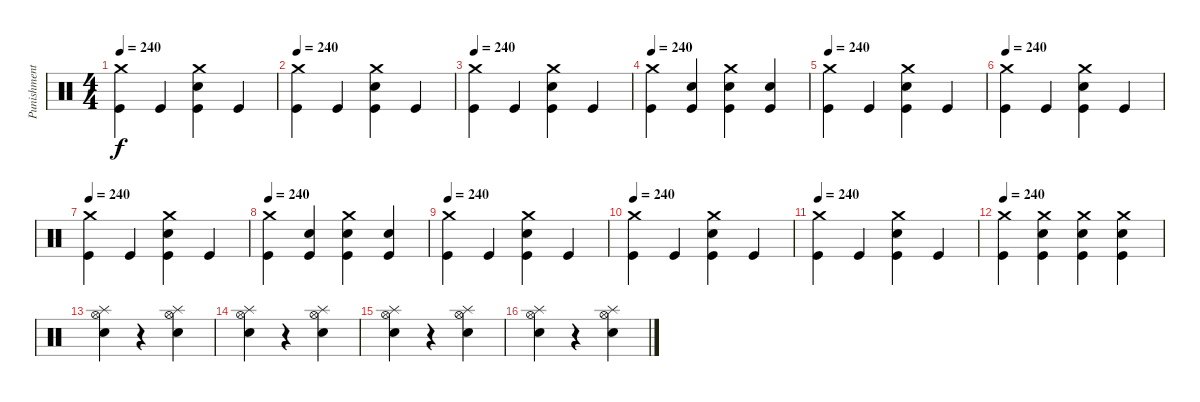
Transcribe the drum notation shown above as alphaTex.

\track ("Punishment" "Punishment") {instrument percussion}
\staff {score}
\articulation defaults
\ts (4 4)
\tempo 240
\clef neutral
\ks c
("Crash medium (hit)" "Kick (hit)").4{dy f} "Kick (hit)".4 ("Crash medium (hit)" "Electric Snare (hit)" "Kick (hit)").4 "Kick (hit)".4 |
\tempo 240
("Crash medium (hit)" "Kick (hit)").4 "Kick (hit)".4 ("Crash medium (hit)" "Electric Snare (hit)" "Kick (hit)").4 "Kick (hit)".4 |
\tempo 240
("Crash medium (hit)" "Kick (hit)").4 "Kick (hit)".4 ("Crash medium (hit)" "Electric Snare (hit)" "Kick (hit)").4 "Kick (hit)".4 |
\tempo 240
("Crash medium (hit)" "Kick (hit)").4 ("Electric Snare (hit)" "Kick (hit)").4 ("Crash medium (hit)" "Electric Snare (hit)" "Kick (hit)").4 ("Electric Snare (hit)" "Kick (hit)").4 |
\tempo 240
("Crash medium (hit)" "Kick (hit)").4 "Kick (hit)".4 ("Crash medium (hit)" "Electric Snare (hit)" "Kick (hit)").4 "Kick (hit)".4 |
\tempo 240
("Crash medium (hit)" "Kick (hit)").4 "Kick (hit)".4 ("Crash medium (hit)" "Electric Snare (hit)" "Kick (hit)").4 "Kick (hit)".4 |
\tempo 240
("Crash medium (hit)" "Kick (hit)").4 "Kick (hit)".4 ("Crash medium (hit)" "Electric Snare (hit)" "Kick (hit)").4 "Kick (hit)".4 |
\tempo 240
("Crash medium (hit)" "Kick (hit)").4 ("Electric Snare (hit)" "Kick (hit)").4 ("Crash medium (hit)" "Electric Snare (hit)" "Kick (hit)").4 ("Electric Snare (hit)" "Kick (hit)").4 |
\tempo 240
("Crash medium (hit)" "Kick (hit)").4 "Kick (hit)".4 ("Crash medium (hit)" "Electric Snare (hit)" "Kick (hit)").4 "Kick (hit)".4 |
\tempo 240
("Crash medium (hit)" "Kick (hit)").4 "Kick (hit)".4 ("Crash medium (hit)" "Electric Snare (hit)" "Kick (hit)").4 "Kick (hit)".4 |
\tempo 240
("Crash medium (hit)" "Kick (hit)").4 "Kick (hit)".4 ("Crash medium (hit)" "Electric Snare (hit)" "Kick (hit)").4 "Kick (hit)".4 |
\tempo 240
("Crash medium (hit)" "Kick (hit)").4 ("Crash medium (hit)" "Electric Snare (hit)" "Kick (hit)").4 ("Crash medium (hit)" "Electric Snare (hit)" "Kick (hit)").4 ("Crash medium (hit)" "Electric Snare (hit)" "Kick (hit)").4 |
("Hi-Hat (open)" "Splash (hit)" "Electric Snare (hit)").4 r.4 ("Hi-Hat (open)" "Splash (hit)" "Electric Snare (hit)").4 |
("Hi-Hat (open)" "Splash (hit)" "Electric Snare (hit)").4 r.4 ("Hi-Hat (open)" "Splash (hit)" "Electric Snare (hit)").4 |
("Hi-Hat (open)" "Splash (hit)" "Electric Snare (hit)").4 r.4 ("Hi-Hat (open)" "Splash (hit)" "Electric Snare (hit)").4 |
("Hi-Hat (open)" "Splash (hit)" "Electric Snare (hit)").4 r.4 ("Hi-Hat (open)" "Splash (hit)" "Electric Snare (hit)").4
